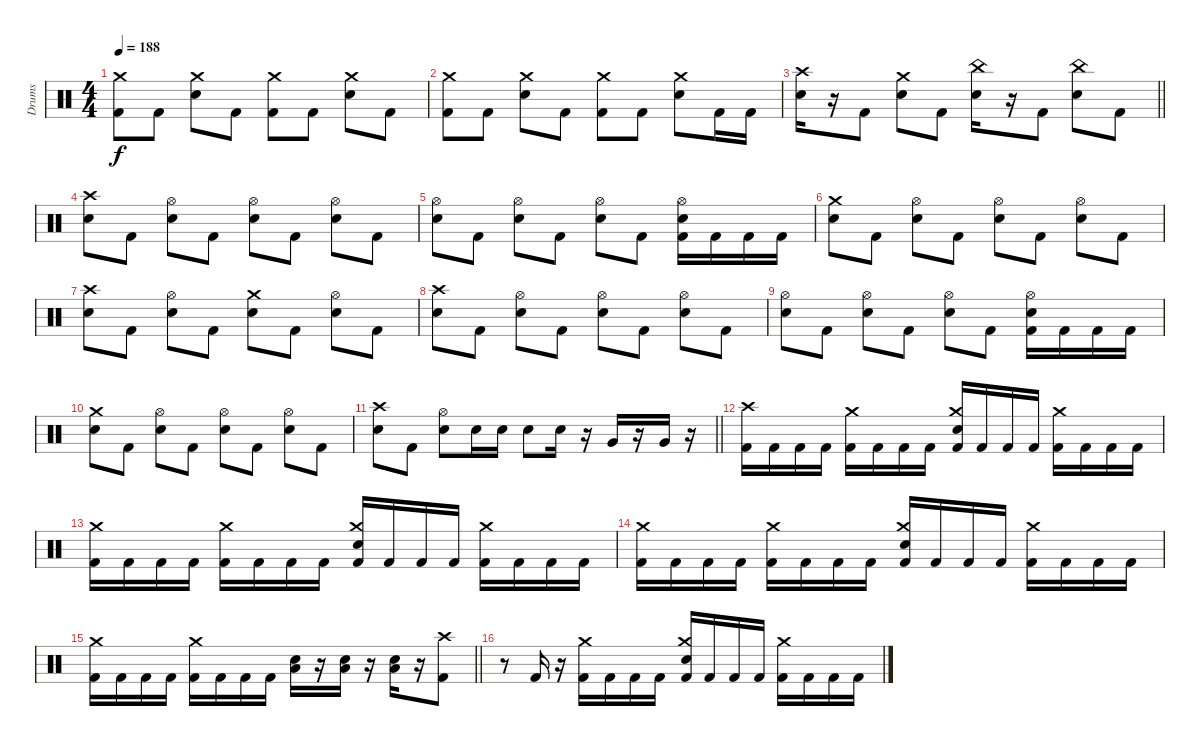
\track ("Drums" "Drums") {instrument percussion}
\staff {score}
\articulation defaults
\ts (4 4)
\tempo 188
\clef neutral
\ks c
("Kick (hit) 2" "Crash medium (hit)").8{dy f} "Kick (hit) 2".8 ("Snare (hit) 2" "Crash medium (hit)").8 "Kick (hit) 2".8 ("Kick (hit) 2" "Crash medium (hit)").8 "Kick (hit) 2".8 ("Snare (hit) 2" "Crash medium (hit)").8 "Kick (hit) 2".8 |
("Kick (hit) 2" "Crash medium (hit)").8 "Kick (hit) 2".8 ("Snare (hit) 2" "Crash medium (hit)").8 "Kick (hit) 2".8 ("Kick (hit) 2" "Crash medium (hit)").8 "Kick (hit) 2".8 ("Snare (hit) 2" "Crash medium (hit)").8 "Kick (hit) 2".16 "Kick (hit) 2".16 |
\barLineRight lightlight
("Snare (hit) 2" "Crash high (hit)").16 r.16 "Kick (hit) 2".8 ("Snare (hit) 2" "Crash medium (hit)").8 "Kick (hit) 2".8 ("Snare (hit) 2" "China (hit)").16 r.16 "Kick (hit) 2".8 ("Snare (hit) 2" "China (hit)").8 "Kick (hit) 2".8 |
\section ("" " ")
("Snare (hit) 2" "Crash high (hit)").8 "Kick (hit) 2".8 ("Snare (hit) 2" "Hi-Hat (open)").8 "Kick (hit) 2".8 ("Snare (hit) 2" "Hi-Hat (open)").8 "Kick (hit) 2".8 ("Snare (hit) 2" "Hi-Hat (open)").8 "Kick (hit) 2".8 |
("Snare (hit) 2" "Hi-Hat (open)").8 "Kick (hit) 2".8 ("Snare (hit) 2" "Hi-Hat (open)").8 "Kick (hit) 2".8 ("Snare (hit) 2" "Hi-Hat (open)").8 "Kick (hit) 2".8 ("Kick (hit) 2" "Snare (hit) 2" "Hi-Hat (open)").16 "Kick (hit) 2".16 "Kick (hit) 2".16 "Kick (hit) 2".16 |
("Snare (hit) 2" "Crash medium (hit)").8 "Kick (hit) 2".8 ("Snare (hit) 2" "Hi-Hat (open)").8 "Kick (hit) 2".8 ("Snare (hit) 2" "Hi-Hat (open)").8 "Kick (hit) 2".8 ("Snare (hit) 2" "Hi-Hat (open)").8 "Kick (hit) 2".8 |
("Snare (hit) 2" "Crash high (hit)").8 "Kick (hit) 2".8 ("Snare (hit) 2" "Hi-Hat (open)").8 "Kick (hit) 2".8 ("Snare (hit) 2" "Crash medium (hit)").8 "Kick (hit) 2".8 ("Snare (hit) 2" "Hi-Hat (open)").8 "Kick (hit) 2".8 |
("Snare (hit) 2" "Crash high (hit)").8 "Kick (hit) 2".8 ("Snare (hit) 2" "Hi-Hat (open)").8 "Kick (hit) 2".8 ("Snare (hit) 2" "Hi-Hat (open)").8 "Kick (hit) 2".8 ("Snare (hit) 2" "Hi-Hat (open)").8 "Kick (hit) 2".8 |
("Snare (hit) 2" "Hi-Hat (open)").8 "Kick (hit) 2".8 ("Snare (hit) 2" "Hi-Hat (open)").8 "Kick (hit) 2".8 ("Snare (hit) 2" "Hi-Hat (open)").8 "Kick (hit) 2".8 ("Kick (hit) 2" "Snare (hit) 2" "Hi-Hat (open)").16 "Kick (hit) 2".16 "Kick (hit) 2".16 "Kick (hit) 2".16 |
("Snare (hit) 2" "Crash medium (hit)").8 "Kick (hit) 2".8 ("Snare (hit) 2" "Hi-Hat (open)").8 "Kick (hit) 2".8 ("Snare (hit) 2" "Hi-Hat (open)").8 "Kick (hit) 2".8 ("Snare (hit) 2" "Hi-Hat (open)").8 "Kick (hit) 2".8 |
\barLineRight lightlight
("Snare (hit) 2" "Crash high (hit)").8 "Kick (hit) 2".8 ("Snare (hit) 2" "Hi-Hat (open)").8 "Snare (hit) 2".16 "Snare (hit) 2".16 "Snare (hit) 2".8 "Snare (hit) 2".16 r.16 "Very Low Tom (hit)".16 r.16 "Very Low Tom (hit)".16 r.16 |
\section ("" " ")
("Kick (hit) 2" "Crash high (hit)").16 "Kick (hit) 2".16 "Kick (hit) 2".16 "Kick (hit) 2".16 ("Kick (hit) 2" "Crash medium (hit)").16 "Kick (hit) 2".16 "Kick (hit) 2".16 "Kick (hit) 2".16 ("Kick (hit) 2" "Snare (hit) 2" "Crash medium (hit)").16 "Kick (hit) 2".16 "Kick (hit) 2".16 "Kick (hit) 2".16 ("Kick (hit) 2" "Crash medium (hit)").16 "Kick (hit) 2".16 "Kick (hit) 2".16 "Kick (hit) 2".16 |
("Kick (hit) 2" "Crash medium (hit)").16 "Kick (hit) 2".16 "Kick (hit) 2".16 "Kick (hit) 2".16 ("Kick (hit) 2" "Crash medium (hit)").16 "Kick (hit) 2".16 "Kick (hit) 2".16 "Kick (hit) 2".16 ("Kick (hit) 2" "Snare (hit) 2" "Crash medium (hit)").16 "Kick (hit) 2".16 "Kick (hit) 2".16 "Kick (hit) 2".16 ("Kick (hit) 2" "Crash medium (hit)").16 "Kick (hit) 2".16 "Kick (hit) 2".16 "Kick (hit) 2".16 |
("Kick (hit) 2" "Crash medium (hit)").16 "Kick (hit) 2".16 "Kick (hit) 2".16 "Kick (hit) 2".16 ("Kick (hit) 2" "Crash medium (hit)").16 "Kick (hit) 2".16 "Kick (hit) 2".16 "Kick (hit) 2".16 ("Kick (hit) 2" "Snare (hit) 2" "Crash medium (hit)").16 "Kick (hit) 2".16 "Kick (hit) 2".16 "Kick (hit) 2".16 ("Kick (hit) 2" "Crash medium (hit)").16 "Kick (hit) 2".16 "Kick (hit) 2".16 "Kick (hit) 2".16 |
\barLineRight lightlight
("Kick (hit) 2" "Crash medium (hit)").16 "Kick (hit) 2".16 "Kick (hit) 2".16 "Kick (hit) 2".16 ("Kick (hit) 2" "Crash medium (hit)").16 "Kick (hit) 2".16 "Kick (hit) 2".16 "Kick (hit) 2".16 ("Snare (hit) 2" "Low Floor Tom (hit)").16 r.16 ("Snare (hit) 2" "Low Floor Tom (hit)").16 r.16 ("Snare (hit) 2" "Low Floor Tom (hit)").16 r.16 ("Kick (hit) 2" "Crash high (hit)").8 |
r.8 "Kick (hit) 2".16 r.16 ("Kick (hit) 2" "Crash medium (hit)").16 "Kick (hit) 2".16 "Kick (hit) 2".16 "Kick (hit) 2".16 ("Kick (hit) 2" "Snare (hit) 2" "Crash medium (hit)").16 "Kick (hit) 2".16 "Kick (hit) 2".16 "Kick (hit) 2".16 ("Kick (hit) 2" "Crash medium (hit)").16 "Kick (hit) 2".16 "Kick (hit) 2".16 "Kick (hit) 2".16
